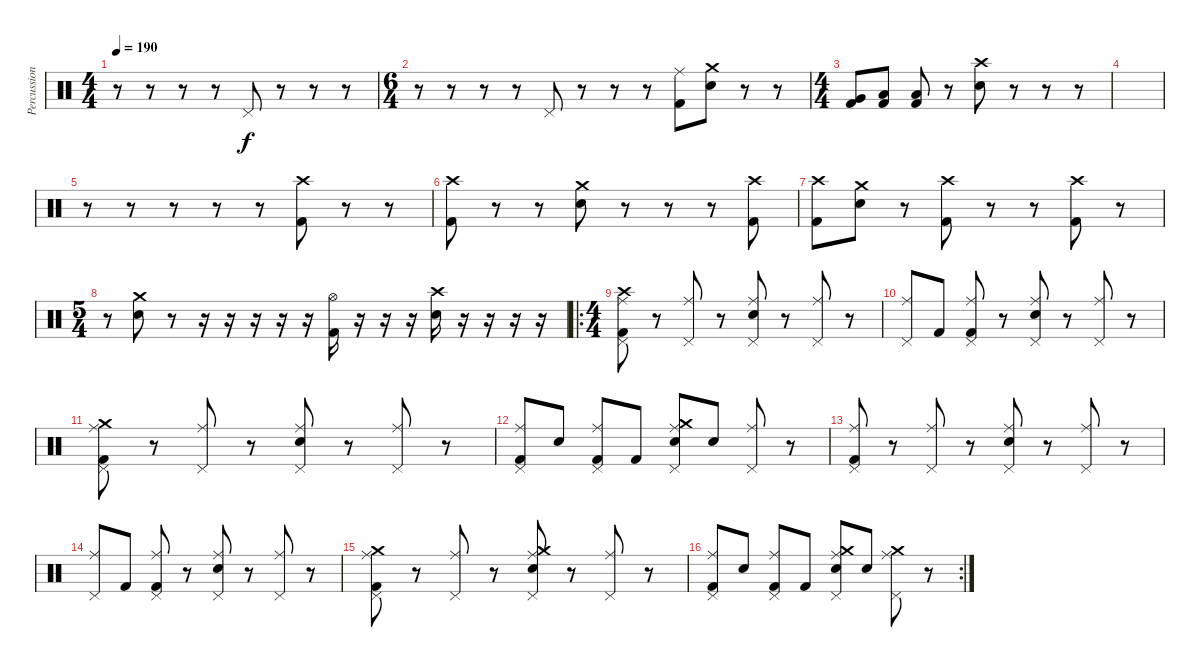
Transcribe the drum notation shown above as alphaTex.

\track ("Percussion" "Percussion") {instrument percussion}
\staff {score}
\articulation defaults
\ts (4 4)
\tempo 190
\clef neutral
\ks c
r.8{dy f} r.8 r.8 r.8 "Pedal Hi-Hat (hit)".8 r.8 r.8 r.8 |
\ts (6 4)
r.8 r.8 r.8 r.8 "Pedal Hi-Hat (hit)".8 r.8 r.8 r.8 ("Ride (middle)" "Kick (hit) 2").8 ("Crash medium (hit)" "Snare (hit) 2").8 r.8 r.8 |
\ts (4 4)
("Very Low Tom (hit)" "Kick (hit) 2").8 ("Low Floor Tom (hit)" "Kick (hit) 2").8 ("Low Floor Tom (hit)" "Kick (hit) 2").8 r.8 ("Crash high (hit)" "Snare (hit) 2").8 r.8 r.8 r.8 |
|
r.8 r.8 r.8 r.8 r.8 ("Crash high (hit)" "Kick (hit) 2").8 r.8 r.8 |
("Crash high (hit)" "Kick (hit) 2").8 r.8 r.8 ("Crash medium (hit)" "Snare (hit) 2").8 r.8 r.8 r.8 ("Crash high (hit)" "Kick (hit) 2").8 |
("Crash high (hit)" "Kick (hit) 2").8 ("Crash medium (hit)" "Snare (hit) 2").8 r.8 ("Crash high (hit)" "Kick (hit) 2").8 r.8 r.8 ("Crash high (hit)" "Kick (hit) 2").8 r.8 |
\ts (5 4)
r.8 ("Crash medium (hit)" "Snare (hit) 2").8 r.8 r.16 r.16 r.16 r.16 r.16 ("Hi-Hat (open)" "Kick (hit) 2").16 r.16 r.16 r.16 ("Crash high (hit)" "Snare (hit) 2").16 r.16 r.16 r.16 r.16 |
\ro
\ts (4 4)
("Crash high (hit)" "Ride (middle)" "Pedal Hi-Hat (hit)" "Kick (hit) 2").8 r.8 ("Ride (middle)" "Pedal Hi-Hat (hit)").8 r.8 ("Ride (middle)" "Pedal Hi-Hat (hit)" "Snare (hit) 2").8 r.8 ("Ride (middle)" "Pedal Hi-Hat (hit)").8 r.8 |
("Ride (middle)" "Pedal Hi-Hat (hit)").8 "Kick (hit) 2".8 ("Ride (middle)" "Pedal Hi-Hat (hit)" "Kick (hit) 2").8 r.8 ("Ride (middle)" "Pedal Hi-Hat (hit)" "Snare (hit) 2").8 r.8 ("Ride (middle)" "Pedal Hi-Hat (hit)").8 r.8 |
("Crash medium (hit)" "Ride (middle)" "Pedal Hi-Hat (hit)" "Kick (hit) 2").8 r.8 ("Ride (middle)" "Pedal Hi-Hat (hit)").8 r.8 ("Ride (middle)" "Pedal Hi-Hat (hit)" "Snare (hit) 2").8 r.8 ("Ride (middle)" "Pedal Hi-Hat (hit)").8 r.8 |
("Ride (middle)" "Pedal Hi-Hat (hit)" "Kick (hit) 2").8 "Snare (hit) 2".8 ("Ride (middle)" "Pedal Hi-Hat (hit)" "Kick (hit) 2").8 "Kick (hit) 2".8 ("Crash medium (hit)" "Ride (middle)" "Pedal Hi-Hat (hit)" "Snare (hit) 2").8 "Snare (hit) 2".8 ("Ride (middle)" "Pedal Hi-Hat (hit)").8 r.8 |
("Ride (middle)" "Pedal Hi-Hat (hit)" "Kick (hit) 2").8 r.8 ("Ride (middle)" "Pedal Hi-Hat (hit)").8 r.8 ("Ride (middle)" "Pedal Hi-Hat (hit)" "Snare (hit) 2").8 r.8 ("Ride (middle)" "Pedal Hi-Hat (hit)").8 r.8 |
("Ride (middle)" "Pedal Hi-Hat (hit)").8 "Kick (hit) 2".8 ("Ride (middle)" "Pedal Hi-Hat (hit)" "Kick (hit) 2").8 r.8 ("Ride (middle)" "Pedal Hi-Hat (hit)" "Snare (hit) 2").8 r.8 ("Ride (middle)" "Pedal Hi-Hat (hit)").8 r.8 |
("Crash medium (hit)" "Ride (middle)" "Pedal Hi-Hat (hit)" "Kick (hit) 2").8 r.8 ("Ride (middle)" "Pedal Hi-Hat (hit)").8 r.8 ("Crash medium (hit)" "Ride (middle)" "Pedal Hi-Hat (hit)" "Snare (hit) 2").8 r.8 ("Ride (middle)" "Pedal Hi-Hat (hit)").8 r.8 |
\rc 2
("Ride (middle)" "Pedal Hi-Hat (hit)" "Kick (hit) 2").8 "Snare (hit) 2".8 ("Ride (middle)" "Pedal Hi-Hat (hit)" "Kick (hit) 2").8 "Kick (hit) 2".8 ("Crash medium (hit)" "Ride (middle)" "Pedal Hi-Hat (hit)" "Snare (hit) 2").8 "Snare (hit) 2".8 ("Crash medium (hit)" "Ride (middle)" "Pedal Hi-Hat (hit)").8 r.8
